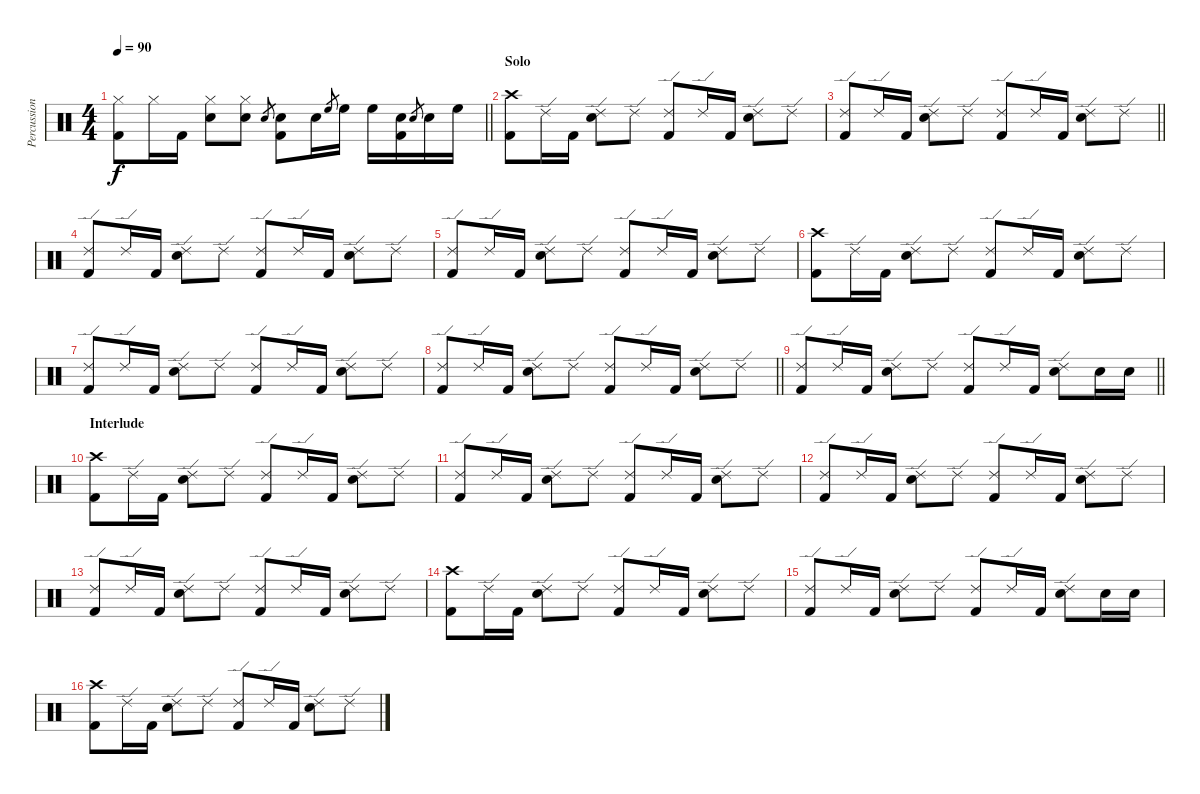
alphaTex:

\track ("Percussion" "Percussion") {instrument percussion}
\staff {score}
\articulation defaults
\ts (4 4)
\tempo 90
\clef neutral
\barLineRight lightlight
\ks c
("Hi-Hat (closed)" "Kick (hit) 2").8{dy f} "Hi-Hat (closed)".16 "Kick (hit) 2".16 ("Hi-Hat (closed)" "Electric Snare (hit)").8 ("Hi-Hat (closed)" "Electric Snare (hit)").8 "Electric Snare (hit)".8{gr} ("Electric Snare (hit)" "Kick (hit) 2").8 "Electric Snare (hit)".16 "High Floor Tom (hit)".8{gr} "High Floor Tom (hit)".16 "High Floor Tom (hit)".16 ("Electric Snare (hit)" "Kick (hit) 2").16 "Electric Snare (hit)".8{gr} "Electric Snare (hit)".16 "High Floor Tom (hit)".16 |
\section ("" "Solo")
("Crash high (hit)" "Kick (hit) 2").8 "Ride (edge) 2".16 "Kick (hit) 2".16 ("Ride (edge) 2" "Electric Snare (hit)").8 "Ride (edge) 2".8 ("Ride (edge) 2" "Kick (hit) 2").8 "Ride (edge) 2".16 "Kick (hit) 2".16 ("Ride (edge) 2" "Electric Snare (hit)").8 "Ride (edge) 2".8 |
\barLineRight lightlight
("Ride (edge) 2" "Kick (hit) 2").8 "Ride (edge) 2".16 "Kick (hit) 2".16 ("Ride (edge) 2" "Electric Snare (hit)").8 "Ride (edge) 2".8 ("Ride (edge) 2" "Kick (hit) 2").8 "Ride (edge) 2".16 "Kick (hit) 2".16 ("Ride (edge) 2" "Electric Snare (hit)").8 "Ride (edge) 2".8 |
("Ride (edge) 2" "Kick (hit) 2").8 "Ride (edge) 2".16 "Kick (hit) 2".16 ("Ride (edge) 2" "Electric Snare (hit)").8 "Ride (edge) 2".8 ("Ride (edge) 2" "Kick (hit) 2").8 "Ride (edge) 2".16 "Kick (hit) 2".16 ("Ride (edge) 2" "Electric Snare (hit)").8 "Ride (edge) 2".8 |
("Ride (edge) 2" "Kick (hit) 2").8 "Ride (edge) 2".16 "Kick (hit) 2".16 ("Ride (edge) 2" "Electric Snare (hit)").8 "Ride (edge) 2".8 ("Ride (edge) 2" "Kick (hit) 2").8 "Ride (edge) 2".16 "Kick (hit) 2".16 ("Ride (edge) 2" "Electric Snare (hit)").8 "Ride (edge) 2".8 |
("Crash high (hit)" "Kick (hit) 2").8 "Ride (edge) 2".16 "Kick (hit) 2".16 ("Ride (edge) 2" "Electric Snare (hit)").8 "Ride (edge) 2".8 ("Ride (edge) 2" "Kick (hit) 2").8 "Ride (edge) 2".16 "Kick (hit) 2".16 ("Ride (edge) 2" "Electric Snare (hit)").8 "Ride (edge) 2".8 |
("Ride (edge) 2" "Kick (hit) 2").8 "Ride (edge) 2".16 "Kick (hit) 2".16 ("Ride (edge) 2" "Electric Snare (hit)").8 "Ride (edge) 2".8 ("Ride (edge) 2" "Kick (hit) 2").8 "Ride (edge) 2".16 "Kick (hit) 2".16 ("Ride (edge) 2" "Electric Snare (hit)").8 "Ride (edge) 2".8 |
\barLineRight lightlight
("Ride (edge) 2" "Kick (hit) 2").8 "Ride (edge) 2".16 "Kick (hit) 2".16 ("Ride (edge) 2" "Electric Snare (hit)").8 "Ride (edge) 2".8 ("Ride (edge) 2" "Kick (hit) 2").8 "Ride (edge) 2".16 "Kick (hit) 2".16 ("Ride (edge) 2" "Electric Snare (hit)").8 "Ride (edge) 2".8 |
\section ("" "")
\barLineRight lightlight
("Ride (edge) 2" "Kick (hit) 2").8 "Ride (edge) 2".16 "Kick (hit) 2".16 ("Ride (edge) 2" "Electric Snare (hit)").8 "Ride (edge) 2".8 ("Ride (edge) 2" "Kick (hit) 2").8 "Ride (edge) 2".16 "Kick (hit) 2".16 ("Ride (edge) 2" "Electric Snare (hit)").8 "Electric Snare (hit)".16 "Electric Snare (hit)".16 |
\section ("" "Interlude")
("Crash high (hit)" "Kick (hit) 2").8 "Ride (edge) 2".16 "Kick (hit) 2".16 ("Ride (edge) 2" "Electric Snare (hit)").8 "Ride (edge) 2".8 ("Ride (edge) 2" "Kick (hit) 2").8 "Ride (edge) 2".16 "Kick (hit) 2".16 ("Ride (edge) 2" "Electric Snare (hit)").8 "Ride (edge) 2".8 |
("Ride (edge) 2" "Kick (hit) 2").8 "Ride (edge) 2".16 "Kick (hit) 2".16 ("Ride (edge) 2" "Electric Snare (hit)").8 "Ride (edge) 2".8 ("Ride (edge) 2" "Kick (hit) 2").8 "Ride (edge) 2".16 "Kick (hit) 2".16 ("Ride (edge) 2" "Electric Snare (hit)").8 "Ride (edge) 2".8 |
("Ride (edge) 2" "Kick (hit) 2").8 "Ride (edge) 2".16 "Kick (hit) 2".16 ("Ride (edge) 2" "Electric Snare (hit)").8 "Ride (edge) 2".8 ("Ride (edge) 2" "Kick (hit) 2").8 "Ride (edge) 2".16 "Kick (hit) 2".16 ("Ride (edge) 2" "Electric Snare (hit)").8 "Ride (edge) 2".8 |
("Ride (edge) 2" "Kick (hit) 2").8 "Ride (edge) 2".16 "Kick (hit) 2".16 ("Ride (edge) 2" "Electric Snare (hit)").8 "Ride (edge) 2".8 ("Ride (edge) 2" "Kick (hit) 2").8 "Ride (edge) 2".16 "Kick (hit) 2".16 ("Ride (edge) 2" "Electric Snare (hit)").8 "Ride (edge) 2".8 |
("Crash high (hit)" "Kick (hit) 2").8 "Ride (edge) 2".16 "Kick (hit) 2".16 ("Ride (edge) 2" "Electric Snare (hit)").8 "Ride (edge) 2".8 ("Ride (edge) 2" "Kick (hit) 2").8 "Ride (edge) 2".16 "Kick (hit) 2".16 ("Ride (edge) 2" "Electric Snare (hit)").8 "Ride (edge) 2".8 |
("Ride (edge) 2" "Kick (hit) 2").8 "Ride (edge) 2".16 "Kick (hit) 2".16 ("Ride (edge) 2" "Electric Snare (hit)").8 "Ride (edge) 2".8 ("Ride (edge) 2" "Kick (hit) 2").8 "Ride (edge) 2".16 "Kick (hit) 2".16 ("Ride (edge) 2" "Electric Snare (hit)").8 "Electric Snare (hit)".16 "Electric Snare (hit)".16 |
("Crash high (hit)" "Kick (hit) 2").8 "Ride (edge) 2".16 "Kick (hit) 2".16 ("Ride (edge) 2" "Electric Snare (hit)").8 "Ride (edge) 2".8 ("Ride (edge) 2" "Kick (hit) 2").8 "Ride (edge) 2".16 "Kick (hit) 2".16 ("Ride (edge) 2" "Electric Snare (hit)").8 "Ride (edge) 2".8
